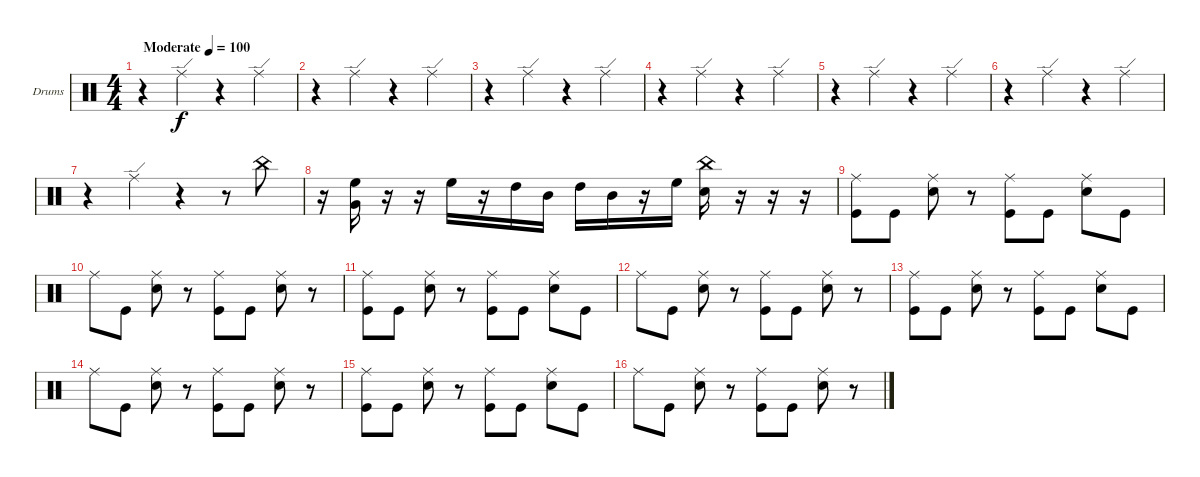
\bracketExtendMode groupsimilarinstruments
\firstSystemTrackNameOrientation horizontal
\otherSystemsTrackNameOrientation horizontal
\track ("Drumkit" "Drums") {instrument percussion}
\staff {score}
\articulation defaults
\ts (4 4)
\beaming (8 2 2 2 2)
\tempo (100 "Moderate")
\clef neutral
\ks c
r.4{dy f} "Ride (edge)".4 r.4 "Ride (edge)".4 |
r.4 "Ride (edge)".4 r.4 "Ride (edge)".4 |
r.4 "Ride (edge)".4 r.4 "Ride (edge)".4 |
r.4 "Ride (edge)".4 r.4 "Ride (edge)".4 |
r.4 "Ride (edge)".4 r.4 "Ride (edge)".4 |
r.4 "Ride (edge)".4 r.4 "Ride (edge)".4 |
r.4 "Ride (edge)".4 r.4 r.8 "China (hit)".8 |
r.16 ("High Floor Tom (hit)" "Very Low Tom (hit)").16 r.16 r.16 "High Floor Tom (hit)".16 r.16 "High Tom (hit)".16 "Mid Tom (hit)".16 "High Tom (hit)".16 "Mid Tom (hit)".16 r.16 "High Floor Tom (hit)".16 ("Snare (hit) 2" "China (hit)").16 r.16 r.16 r.16 |
("Kick (hit)" "Ride (middle)").8 "Kick (hit)".8 ("Snare (hit) 2" "Ride (middle)").8 r.8 ("Kick (hit)" "Ride (middle)").8 "Kick (hit)".8 ("Snare (hit) 2" "Ride (middle)").8 "Kick (hit)".8 |
"Ride (middle)".8 "Kick (hit)".8 ("Snare (hit) 2" "Ride (middle)").8 r.8 ("Kick (hit)" "Ride (middle)").8 "Kick (hit)".8 ("Snare (hit) 2" "Ride (middle)").8 r.8 |
("Kick (hit)" "Ride (middle)").8 "Kick (hit)".8 ("Snare (hit) 2" "Ride (middle)").8 r.8 ("Kick (hit)" "Ride (middle)").8 "Kick (hit)".8 ("Snare (hit) 2" "Ride (middle)").8 "Kick (hit)".8 |
"Ride (middle)".8 "Kick (hit)".8 ("Snare (hit) 2" "Ride (middle)").8 r.8 ("Kick (hit)" "Ride (middle)").8 "Kick (hit)".8 ("Snare (hit) 2" "Ride (middle)").8 r.8 |
("Kick (hit)" "Ride (middle)").8 "Kick (hit)".8 ("Snare (hit) 2" "Ride (middle)").8 r.8 ("Kick (hit)" "Ride (middle)").8 "Kick (hit)".8 ("Snare (hit) 2" "Ride (middle)").8 "Kick (hit)".8 |
"Ride (middle)".8 "Kick (hit)".8 ("Snare (hit) 2" "Ride (middle)").8 r.8 ("Kick (hit)" "Ride (middle)").8 "Kick (hit)".8 ("Snare (hit) 2" "Ride (middle)").8 r.8 |
("Kick (hit)" "Ride (middle)").8 "Kick (hit)".8 ("Snare (hit) 2" "Ride (middle)").8 r.8 ("Kick (hit)" "Ride (middle)").8 "Kick (hit)".8 ("Snare (hit) 2" "Ride (middle)").8 "Kick (hit)".8 |
"Ride (middle)".8 "Kick (hit)".8 ("Snare (hit) 2" "Ride (middle)").8 r.8 ("Kick (hit)" "Ride (middle)").8 "Kick (hit)".8 ("Snare (hit) 2" "Ride (middle)").8 r.8
